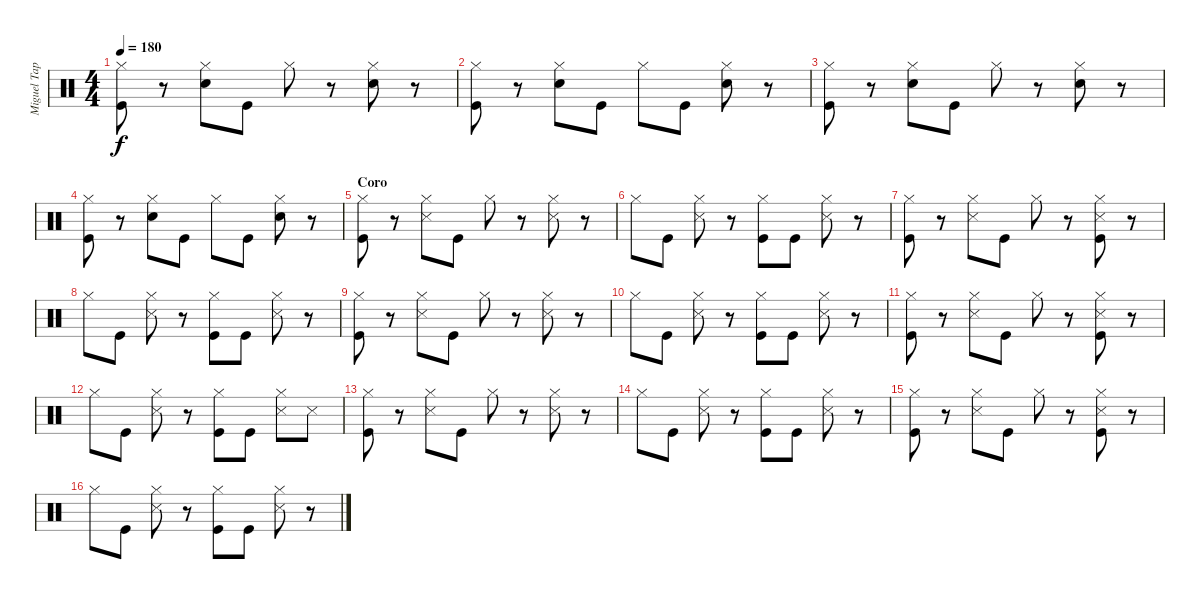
\track ("Miguel Tapia (Batería)" "Miguel Tap") {instrument percussion}
\staff {score}
\articulation defaults
\ts (4 4)
\tempo 180
\clef neutral
\ks c
("Hi-Hat (closed)" "Kick (hit)").8{dy f} r.8 ("Hi-Hat (closed)" "Snare (hit) 2").8 "Kick (hit)".8 "Hi-Hat (closed)".8 r.8 ("Hi-Hat (closed)" "Snare (hit) 2").8 r.8 |
("Hi-Hat (closed)" "Kick (hit)").8 r.8 ("Hi-Hat (closed)" "Snare (hit) 2").8 "Kick (hit)".8 "Hi-Hat (closed)".8 "Kick (hit)".8 ("Hi-Hat (closed)" "Snare (hit) 2").8 r.8 |
("Hi-Hat (closed)" "Kick (hit)").8 r.8 ("Hi-Hat (closed)" "Snare (hit) 2").8 "Kick (hit)".8 "Hi-Hat (closed)".8 r.8 ("Hi-Hat (closed)" "Snare (hit) 2").8 r.8 |
("Hi-Hat (closed)" "Kick (hit)").8 r.8 ("Hi-Hat (closed)" "Snare (hit) 2").8 "Kick (hit)".8 "Hi-Hat (closed)".8 "Kick (hit)".8 ("Hi-Hat (closed)" "Snare (hit) 2").8 r.8 |
\section ("" "Coro")
("Hi-Hat (closed)" "Kick (hit)").8 r.8 ("Hi-Hat (closed)" "Snare (side stick) 3").8 "Kick (hit)".8 "Hi-Hat (closed)".8 r.8 ("Hi-Hat (closed)" "Snare (side stick) 3").8 r.8 |
"Hi-Hat (closed)".8 "Kick (hit)".8 ("Hi-Hat (closed)" "Snare (side stick) 3").8 r.8 ("Hi-Hat (closed)" "Kick (hit)").8 "Kick (hit)".8 ("Hi-Hat (closed)" "Snare (side stick) 3").8 r.8 |
("Hi-Hat (closed)" "Kick (hit)").8 r.8 ("Hi-Hat (closed)" "Snare (side stick) 3").8 "Kick (hit)".8 "Hi-Hat (closed)".8 r.8 ("Hi-Hat (closed)" "Snare (side stick) 3" "Kick (hit)").8 r.8 |
"Hi-Hat (closed)".8 "Kick (hit)".8 ("Hi-Hat (closed)" "Snare (side stick) 3").8 r.8 ("Hi-Hat (closed)" "Kick (hit)").8 "Kick (hit)".8 ("Hi-Hat (closed)" "Snare (side stick) 3").8 r.8 |
("Hi-Hat (closed)" "Kick (hit)").8 r.8 ("Hi-Hat (closed)" "Snare (side stick) 3").8 "Kick (hit)".8 "Hi-Hat (closed)".8 r.8 ("Hi-Hat (closed)" "Snare (side stick) 3").8 r.8 |
"Hi-Hat (closed)".8 "Kick (hit)".8 ("Hi-Hat (closed)" "Snare (side stick) 3").8 r.8 ("Hi-Hat (closed)" "Kick (hit)").8 "Kick (hit)".8 ("Hi-Hat (closed)" "Snare (side stick) 3").8 r.8 |
("Hi-Hat (closed)" "Kick (hit)").8 r.8 ("Hi-Hat (closed)" "Snare (side stick) 3").8 "Kick (hit)".8 "Hi-Hat (closed)".8 r.8 ("Hi-Hat (closed)" "Snare (side stick) 3" "Kick (hit)").8 r.8 |
"Hi-Hat (closed)".8 "Kick (hit)".8 ("Hi-Hat (closed)" "Snare (side stick) 3").8 r.8 ("Hi-Hat (closed)" "Kick (hit)").8 "Kick (hit)".8 ("Hi-Hat (closed)" "Snare (side stick) 3").8 "Snare (side stick) 3".8 |
("Hi-Hat (closed)" "Kick (hit)").8 r.8 ("Hi-Hat (closed)" "Snare (side stick) 3").8 "Kick (hit)".8 "Hi-Hat (closed)".8 r.8 ("Hi-Hat (closed)" "Snare (side stick) 3").8 r.8 |
"Hi-Hat (closed)".8 "Kick (hit)".8 ("Hi-Hat (closed)" "Snare (side stick) 3").8 r.8 ("Hi-Hat (closed)" "Kick (hit)").8 "Kick (hit)".8 ("Hi-Hat (closed)" "Snare (side stick) 3").8 r.8 |
("Hi-Hat (closed)" "Kick (hit)").8 r.8 ("Hi-Hat (closed)" "Snare (side stick) 3").8 "Kick (hit)".8 "Hi-Hat (closed)".8 r.8 ("Hi-Hat (closed)" "Snare (side stick) 3" "Kick (hit)").8 r.8 |
"Hi-Hat (closed)".8 "Kick (hit)".8 ("Hi-Hat (closed)" "Snare (side stick) 3").8 r.8 ("Hi-Hat (closed)" "Kick (hit)").8 "Kick (hit)".8 ("Hi-Hat (closed)" "Snare (side stick) 3").8 r.8
